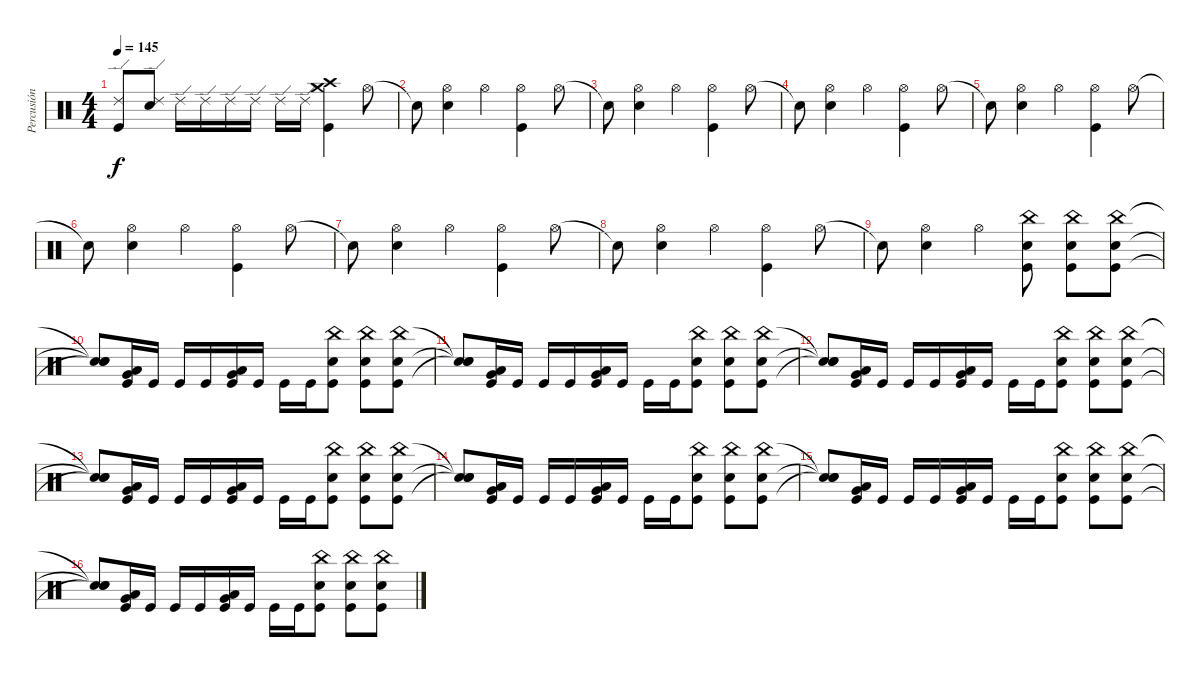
\track ("Percusión" "Percusión") {instrument percussion}
\staff {score}
\articulation defaults
\ts (4 4)
\tempo 145
\clef neutral
\ks c
("Ride (edge) 2" "Kick (hit)").8{dy f} ("Ride (edge) 2" "Snare (hit) 2").8 "Ride (edge) 2".16 "Ride (edge) 2".16 "Ride (edge) 2".16 "Ride (edge) 2".16 "Ride (edge) 2".16 "Ride (edge) 2".16 ("Crash high (hit)" "Crash medium (hit)" "Kick (hit)").4 "Hi-Hat (open)".8 |
"Snare (hit)"{t}.8 ("Hi-Hat (open)" "Snare (hit) 2").4 "Hi-Hat (open)".4 ("Hi-Hat (open)" "Kick (hit)").4 "Hi-Hat (open)".8 |
"Snare (hit)"{t}.8 ("Hi-Hat (open)" "Snare (hit) 2").4 "Hi-Hat (open)".4 ("Hi-Hat (open)" "Kick (hit)").4 "Hi-Hat (open)".8 |
"Snare (hit)"{t}.8 ("Hi-Hat (open)" "Snare (hit) 2").4 "Hi-Hat (open)".4 ("Hi-Hat (open)" "Kick (hit)").4 "Hi-Hat (open)".8 |
"Snare (hit)"{t}.8 ("Hi-Hat (open)" "Snare (hit) 2").4 "Hi-Hat (open)".4 ("Hi-Hat (open)" "Kick (hit)").4 "Hi-Hat (open)".8 |
"Snare (hit)"{t}.8 ("Hi-Hat (open)" "Snare (hit) 2").4 "Hi-Hat (open)".4 ("Hi-Hat (open)" "Kick (hit)").4 "Hi-Hat (open)".8 |
"Snare (hit)"{t}.8 ("Hi-Hat (open)" "Snare (hit) 2").4 "Hi-Hat (open)".4 ("Hi-Hat (open)" "Kick (hit)").4 "Hi-Hat (open)".8 |
"Snare (hit)"{t}.8 ("Hi-Hat (open)" "Snare (hit) 2").4 "Hi-Hat (open)".4 ("Hi-Hat (open)" "Kick (hit)").4 "Hi-Hat (open)".8 |
"Snare (hit)"{t}.8 ("Hi-Hat (open)" "Snare (hit) 2").4 "Hi-Hat (open)".4 ("China (hit)" "Snare (hit) 2" "Kick (hit)").8 ("China (hit)" "Snare (hit) 2" "Kick (hit)").8 ("China (hit)" "Snare (hit) 2" "Kick (hit)").8 |
("Snare (hit)"{t} "Snare (hit)"{t} "Snare (hit)"{t}).8 ("Low Tom (hit)" "Very Low Tom (hit)" "Kick (hit)").16 "Kick (hit)".16 "Kick (hit)".16 "Kick (hit)".16 ("Low Tom (hit)" "Very Low Tom (hit)" "Kick (hit)").16 "Kick (hit)".16 "Kick (hit)".16 "Kick (hit)".16 ("China (hit)" "Snare (hit) 2" "Kick (hit)").8 ("China (hit)" "Snare (hit) 2" "Kick (hit)").8 ("China (hit)" "Snare (hit) 2" "Kick (hit)").8 |
("Snare (hit)"{t} "Snare (hit)"{t} "Snare (hit)"{t}).8 ("Low Tom (hit)" "Very Low Tom (hit)" "Kick (hit)").16 "Kick (hit)".16 "Kick (hit)".16 "Kick (hit)".16 ("Low Tom (hit)" "Very Low Tom (hit)" "Kick (hit)").16 "Kick (hit)".16 "Kick (hit)".16 "Kick (hit)".16 ("China (hit)" "Snare (hit) 2" "Kick (hit)").8 ("China (hit)" "Snare (hit) 2" "Kick (hit)").8 ("China (hit)" "Snare (hit) 2" "Kick (hit)").8 |
("Snare (hit)"{t} "Snare (hit)"{t} "Snare (hit)"{t}).8 ("Low Tom (hit)" "Very Low Tom (hit)" "Kick (hit)").16 "Kick (hit)".16 "Kick (hit)".16 "Kick (hit)".16 ("Low Tom (hit)" "Very Low Tom (hit)" "Kick (hit)").16 "Kick (hit)".16 "Kick (hit)".16 "Kick (hit)".16 ("China (hit)" "Snare (hit) 2" "Kick (hit)").8 ("China (hit)" "Snare (hit) 2" "Kick (hit)").8 ("China (hit)" "Snare (hit) 2" "Kick (hit)").8 |
("Snare (hit)"{t} "Snare (hit)"{t} "Snare (hit)"{t}).8 ("Low Tom (hit)" "Very Low Tom (hit)" "Kick (hit)").16 "Kick (hit)".16 "Kick (hit)".16 "Kick (hit)".16 ("Low Tom (hit)" "Very Low Tom (hit)" "Kick (hit)").16 "Kick (hit)".16 "Kick (hit)".16 "Kick (hit)".16 ("China (hit)" "Snare (hit) 2" "Kick (hit)").8 ("China (hit)" "Snare (hit) 2" "Kick (hit)").8 ("China (hit)" "Snare (hit) 2" "Kick (hit)").8 |
("Snare (hit)"{t} "Snare (hit)"{t} "Snare (hit)"{t}).8 ("Low Tom (hit)" "Very Low Tom (hit)" "Kick (hit)").16 "Kick (hit)".16 "Kick (hit)".16 "Kick (hit)".16 ("Low Tom (hit)" "Very Low Tom (hit)" "Kick (hit)").16 "Kick (hit)".16 "Kick (hit)".16 "Kick (hit)".16 ("China (hit)" "Snare (hit) 2" "Kick (hit)").8 ("China (hit)" "Snare (hit) 2" "Kick (hit)").8 ("China (hit)" "Snare (hit) 2" "Kick (hit)").8 |
("Snare (hit)"{t} "Snare (hit)"{t} "Snare (hit)"{t}).8 ("Low Tom (hit)" "Very Low Tom (hit)" "Kick (hit)").16 "Kick (hit)".16 "Kick (hit)".16 "Kick (hit)".16 ("Low Tom (hit)" "Very Low Tom (hit)" "Kick (hit)").16 "Kick (hit)".16 "Kick (hit)".16 "Kick (hit)".16 ("China (hit)" "Snare (hit) 2" "Kick (hit)").8 ("China (hit)" "Snare (hit) 2" "Kick (hit)").8 ("China (hit)" "Snare (hit) 2" "Kick (hit)").8 |
("Snare (hit)"{t} "Snare (hit)"{t} "Snare (hit)"{t}).8 ("Low Tom (hit)" "Very Low Tom (hit)" "Kick (hit)").16 "Kick (hit)".16 "Kick (hit)".16 "Kick (hit)".16 ("Low Tom (hit)" "Very Low Tom (hit)" "Kick (hit)").16 "Kick (hit)".16 "Kick (hit)".16 "Kick (hit)".16 ("China (hit)" "Snare (hit) 2" "Kick (hit)").8 ("China (hit)" "Snare (hit) 2" "Kick (hit)").8 ("China (hit)" "Snare (hit) 2" "Kick (hit)").8
